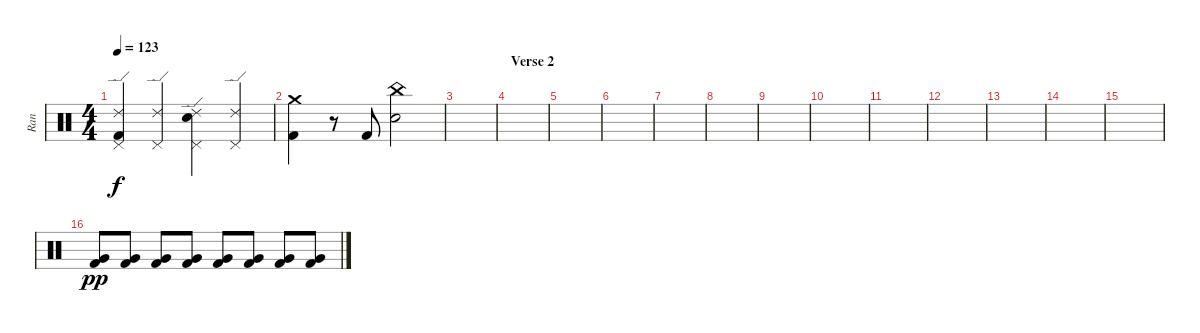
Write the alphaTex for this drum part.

\track ("Ran" "Ran") {instrument percussion}
\staff {score}
\articulation defaults
\ts (4 4)
\tempo 123
\clef neutral
\ks c
("Ride (edge) 2" "Pedal Hi-Hat (hit)" "Kick (hit) 2").4{dy f} ("Ride (edge) 2" "Pedal Hi-Hat (hit)").4 ("Ride (edge) 2" "Snare (hit) 2" "Pedal Hi-Hat (hit)").4 ("Ride (edge) 2" "Pedal Hi-Hat (hit)").4 |
("Crash medium (hit)" "Kick (hit) 2").4 r.8 "Kick (hit) 2".8 ("China (hit)" "Snare (hit) 2").2 |
|
\section ("" "Verse 2")
|
|
|
|
|
|
|
|
|
|
|
|
("Very Low Tom (hit)" "Kick (hit) 2").8{dy pp} ("Very Low Tom (hit)" "Kick (hit) 2").8 ("Very Low Tom (hit)" "Kick (hit) 2").8 ("Very Low Tom (hit)" "Kick (hit) 2").8 ("Very Low Tom (hit)" "Kick (hit) 2").8 ("Very Low Tom (hit)" "Kick (hit) 2").8 ("Very Low Tom (hit)" "Kick (hit) 2").8 ("Very Low Tom (hit)" "Kick (hit) 2").8
